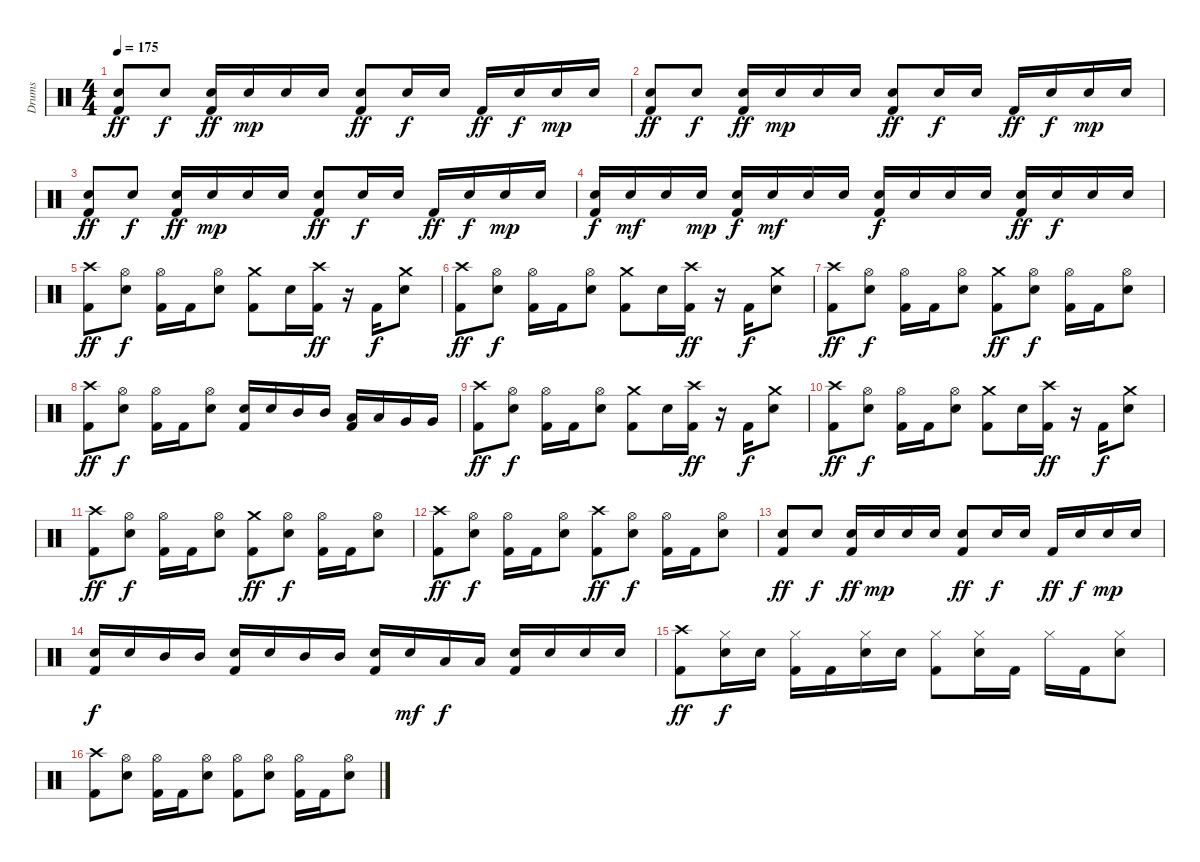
\track ("Drums" "Drums") {instrument percussion}
\staff {score}
\articulation defaults
\ts (4 4)
\tempo 175
\clef neutral
\ks c
("Electric Snare (hit)" "Kick (hit) 2").8{dy ff} "Electric Snare (hit)".8{dy f} ("Electric Snare (hit)" "Kick (hit) 2").16{dy ff} "Electric Snare (hit)".16{dy mp} "Electric Snare (hit)".16 "Electric Snare (hit)".16 ("Electric Snare (hit)" "Kick (hit) 2").8{dy ff} "Electric Snare (hit)".16{dy f} "Electric Snare (hit)".16 "Kick (hit) 2".16{dy ff} "Electric Snare (hit)".16{dy f} "Electric Snare (hit)".16{dy mp} "Electric Snare (hit)".16 |
("Electric Snare (hit)" "Kick (hit) 2").8{dy ff} "Electric Snare (hit)".8{dy f} ("Electric Snare (hit)" "Kick (hit) 2").16{dy ff} "Electric Snare (hit)".16{dy mp} "Electric Snare (hit)".16 "Electric Snare (hit)".16 ("Electric Snare (hit)" "Kick (hit) 2").8{dy ff} "Electric Snare (hit)".16{dy f} "Electric Snare (hit)".16 "Kick (hit) 2".16{dy ff} "Electric Snare (hit)".16{dy f} "Electric Snare (hit)".16{dy mp} "Electric Snare (hit)".16 |
("Electric Snare (hit)" "Kick (hit) 2").8{dy ff} "Electric Snare (hit)".8{dy f} ("Electric Snare (hit)" "Kick (hit) 2").16{dy ff} "Electric Snare (hit)".16{dy mp} "Electric Snare (hit)".16 "Electric Snare (hit)".16 ("Electric Snare (hit)" "Kick (hit) 2").8{dy ff} "Electric Snare (hit)".16{dy f} "Electric Snare (hit)".16 "Kick (hit) 2".16{dy ff} "Electric Snare (hit)".16{dy f} "Electric Snare (hit)".16{dy mp} "Electric Snare (hit)".16 |
("Electric Snare (hit)" "Kick (hit) 2").16{dy f} "Electric Snare (hit)".16{dy mf} "Electric Snare (hit)".16 "Electric Snare (hit)".16{dy mp} ("Electric Snare (hit)" "Kick (hit) 2").16{dy f} "Electric Snare (hit)".16{dy mf} "Electric Snare (hit)".16 "Electric Snare (hit)".16 ("Electric Snare (hit)" "Kick (hit) 2").16{dy f} "Electric Snare (hit)".16 "Electric Snare (hit)".16 "Electric Snare (hit)".16 ("Electric Snare (hit)" "Kick (hit) 2").16{dy ff} "Electric Snare (hit)".16{dy f} "Electric Snare (hit)".16 "Electric Snare (hit)".16 |
("Crash high (hit)" "Kick (hit) 2").8{dy ff} ("Hi-Hat (open)" "Electric Snare (hit)").8{dy f} ("Hi-Hat (open)" "Kick (hit) 2").16 "Kick (hit) 2".16 ("Hi-Hat (open)" "Electric Snare (hit)").8 ("Crash medium (hit)" "Kick (hit) 2").8 "Electric Snare (hit)".16 ("Crash high (hit)" "Kick (hit) 2").16{dy ff} r.16 "Kick (hit) 2".16{dy f} ("Crash medium (hit)" "Electric Snare (hit)").8 |
("Crash high (hit)" "Kick (hit) 2").8{dy ff} ("Hi-Hat (open)" "Electric Snare (hit)").8{dy f} ("Hi-Hat (open)" "Kick (hit) 2").16 "Kick (hit) 2".16 ("Hi-Hat (open)" "Electric Snare (hit)").8 ("Crash medium (hit)" "Kick (hit) 2").8 "Electric Snare (hit)".16 ("Crash high (hit)" "Kick (hit) 2").16{dy ff} r.16 "Kick (hit) 2".16{dy f} ("Crash medium (hit)" "Electric Snare (hit)").8 |
("Crash high (hit)" "Kick (hit) 2").8{dy ff} ("Hi-Hat (open)" "Electric Snare (hit)").8{dy f} ("Hi-Hat (open)" "Kick (hit) 2").16 "Kick (hit) 2".16 ("Hi-Hat (open)" "Electric Snare (hit)").8 ("Crash medium (hit)" "Kick (hit) 2").8{dy ff} ("Hi-Hat (open)" "Electric Snare (hit)").8{dy f} ("Hi-Hat (open)" "Kick (hit) 2").16 "Kick (hit) 2".16 ("Hi-Hat (open)" "Electric Snare (hit)").8 |
("Crash high (hit)" "Kick (hit) 2").8{dy ff} ("Hi-Hat (open)" "Electric Snare (hit)").8{dy f} ("Hi-Hat (open)" "Kick (hit) 2").16 "Kick (hit) 2".16 ("Hi-Hat (open)" "Electric Snare (hit)").8 ("Electric Snare (hit)" "Kick (hit) 2").16 "Electric Snare (hit)".16 "Mid Tom (hit)".16 "Mid Tom (hit)".16 ("Low Tom (hit)" "Kick (hit) 2").16 "Low Tom (hit)".16 "Very Low Tom (hit)".16 "Very Low Tom (hit)".16 |
("Crash high (hit)" "Kick (hit) 2").8{dy ff} ("Hi-Hat (open)" "Electric Snare (hit)").8{dy f} ("Hi-Hat (open)" "Kick (hit) 2").16 "Kick (hit) 2".16 ("Hi-Hat (open)" "Electric Snare (hit)").8 ("Crash medium (hit)" "Kick (hit) 2").8 "Electric Snare (hit)".16 ("Crash high (hit)" "Kick (hit) 2").16{dy ff} r.16 "Kick (hit) 2".16{dy f} ("Crash medium (hit)" "Electric Snare (hit)").8 |
("Crash high (hit)" "Kick (hit) 2").8{dy ff} ("Hi-Hat (open)" "Electric Snare (hit)").8{dy f} ("Hi-Hat (open)" "Kick (hit) 2").16 "Kick (hit) 2".16 ("Hi-Hat (open)" "Electric Snare (hit)").8 ("Crash medium (hit)" "Kick (hit) 2").8 "Electric Snare (hit)".16 ("Crash high (hit)" "Kick (hit) 2").16{dy ff} r.16 "Kick (hit) 2".16{dy f} ("Crash medium (hit)" "Electric Snare (hit)").8 |
("Crash high (hit)" "Kick (hit) 2").8{dy ff} ("Hi-Hat (open)" "Electric Snare (hit)").8{dy f} ("Hi-Hat (open)" "Kick (hit) 2").16 "Kick (hit) 2".16 ("Hi-Hat (open)" "Electric Snare (hit)").8 ("Crash medium (hit)" "Kick (hit) 2").8{dy ff} ("Hi-Hat (open)" "Electric Snare (hit)").8{dy f} ("Hi-Hat (open)" "Kick (hit) 2").16 "Kick (hit) 2".16 ("Hi-Hat (open)" "Electric Snare (hit)").8 |
("Crash high (hit)" "Kick (hit) 2").8{dy ff} ("Hi-Hat (open)" "Electric Snare (hit)").8{dy f} ("Hi-Hat (open)" "Kick (hit) 2").16 "Kick (hit) 2".16 ("Hi-Hat (open)" "Electric Snare (hit)").8 ("Crash high (hit)" "Kick (hit) 2").8{dy ff} ("Hi-Hat (open)" "Electric Snare (hit)").8{dy f} ("Hi-Hat (open)" "Kick (hit) 2").16 "Kick (hit) 2".16 ("Hi-Hat (open)" "Electric Snare (hit)").8 |
("Electric Snare (hit)" "Kick (hit) 2").8{dy ff} "Electric Snare (hit)".8{dy f} ("Electric Snare (hit)" "Kick (hit) 2").16{dy ff} "Electric Snare (hit)".16{dy mp} "Electric Snare (hit)".16 "Electric Snare (hit)".16 ("Electric Snare (hit)" "Kick (hit) 2").8{dy ff} "Electric Snare (hit)".16{dy f} "Electric Snare (hit)".16 "Kick (hit) 2".16{dy ff} "Electric Snare (hit)".16{dy f} "Electric Snare (hit)".16{dy mp} "Electric Snare (hit)".16 |
("Electric Snare (hit)" "Kick (hit) 2").16{dy f} "Electric Snare (hit)".16 "Mid Tom (hit)".16 "Mid Tom (hit)".16 ("Electric Snare (hit)" "Kick (hit) 2").16 "Electric Snare (hit)".16 "Mid Tom (hit)".16 "Mid Tom (hit)".16 ("Electric Snare (hit)" "Kick (hit) 2").16 "Electric Snare (hit)".16{dy mf} "Low Tom (hit)".16{dy f} "Low Tom (hit)".16 ("Electric Snare (hit)" "Kick (hit) 2").16 "Electric Snare (hit)".16 "Electric Snare (hit)".16 "Electric Snare (hit)".16 |
("Crash high (hit)" "Kick (hit) 2").8{dy ff} ("Hi-Hat (closed)" "Electric Snare (hit)").16{dy f} "Electric Snare (hit)".16 ("Hi-Hat (closed)" "Kick (hit) 2").16 "Kick (hit) 2".16 ("Hi-Hat (closed)" "Electric Snare (hit)").16 "Electric Snare (hit)".16 ("Hi-Hat (closed)" "Kick (hit) 2").8 ("Hi-Hat (closed)" "Electric Snare (hit)").16 "Kick (hit) 2".16 "Hi-Hat (closed)".16 "Kick (hit) 2".16 ("Hi-Hat (closed)" "Electric Snare (hit)").8 |
("Crash high (hit)" "Kick (hit) 2").8 ("Hi-Hat (open)" "Electric Snare (hit)").8 ("Hi-Hat (open)" "Kick (hit) 2").16 "Kick (hit) 2".16 ("Hi-Hat (open)" "Electric Snare (hit)").8 ("Hi-Hat (open)" "Kick (hit) 2").8 ("Hi-Hat (open)" "Electric Snare (hit)").8 ("Hi-Hat (open)" "Kick (hit) 2").16 "Kick (hit) 2".16 ("Hi-Hat (open)" "Electric Snare (hit)").8
